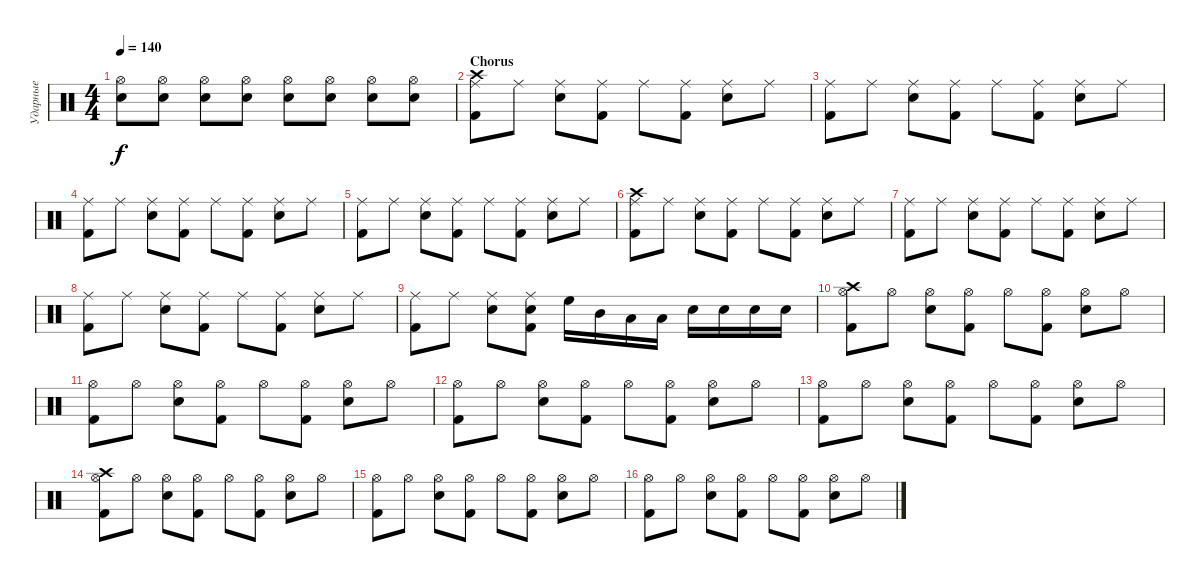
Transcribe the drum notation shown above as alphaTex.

\track ("Ударные" "Ударные") {instrument percussion}
\staff {score}
\articulation defaults
\ts (4 4)
\tempo 140
\clef neutral
\ks c
("Hi-Hat (open)" "Snare (hit) 2").8{dy f} ("Hi-Hat (open)" "Snare (hit) 2").8 ("Hi-Hat (open)" "Snare (hit) 2").8 ("Hi-Hat (open)" "Snare (hit) 2").8 ("Hi-Hat (open)" "Snare (hit) 2").8 ("Hi-Hat (open)" "Snare (hit) 2").8 ("Hi-Hat (open)" "Snare (hit) 2").8 ("Hi-Hat (open)" "Snare (hit) 2").8 |
\section ("" "Chorus")
("Ride (middle)" "Crash high (hit)" "Kick (hit) 2").8 "Ride (middle)".8 ("Ride (middle)" "Snare (hit) 2").8 ("Ride (middle)" "Kick (hit) 2").8 "Ride (middle)".8 ("Ride (middle)" "Kick (hit) 2").8 ("Ride (middle)" "Snare (hit) 2").8 "Ride (middle)".8 |
("Ride (middle)" "Kick (hit) 2").8 "Ride (middle)".8 ("Ride (middle)" "Snare (hit) 2").8 ("Ride (middle)" "Kick (hit) 2").8 "Ride (middle)".8 ("Ride (middle)" "Kick (hit) 2").8 ("Ride (middle)" "Snare (hit) 2").8 "Ride (middle)".8 |
("Ride (middle)" "Kick (hit) 2").8 "Ride (middle)".8 ("Ride (middle)" "Snare (hit) 2").8 ("Ride (middle)" "Kick (hit) 2").8 "Ride (middle)".8 ("Ride (middle)" "Kick (hit) 2").8 ("Ride (middle)" "Snare (hit) 2").8 "Ride (middle)".8 |
("Ride (middle)" "Kick (hit) 2").8 "Ride (middle)".8 ("Ride (middle)" "Snare (hit) 2").8 ("Ride (middle)" "Kick (hit) 2").8 "Ride (middle)".8 ("Ride (middle)" "Kick (hit) 2").8 ("Ride (middle)" "Snare (hit) 2").8 "Ride (middle)".8 |
("Ride (middle)" "Crash high (hit)" "Kick (hit) 2").8 "Ride (middle)".8 ("Ride (middle)" "Snare (hit) 2").8 ("Ride (middle)" "Kick (hit) 2").8 "Ride (middle)".8 ("Ride (middle)" "Kick (hit) 2").8 ("Ride (middle)" "Snare (hit) 2").8 "Ride (middle)".8 |
("Ride (middle)" "Kick (hit) 2").8 "Ride (middle)".8 ("Ride (middle)" "Snare (hit) 2").8 ("Ride (middle)" "Kick (hit) 2").8 "Ride (middle)".8 ("Ride (middle)" "Kick (hit) 2").8 ("Ride (middle)" "Snare (hit) 2").8 "Ride (middle)".8 |
("Ride (middle)" "Kick (hit) 2").8 "Ride (middle)".8 ("Ride (middle)" "Snare (hit) 2").8 ("Ride (middle)" "Kick (hit) 2").8 "Ride (middle)".8 ("Ride (middle)" "Kick (hit) 2").8 ("Ride (middle)" "Snare (hit) 2").8 "Ride (middle)".8 |
("Ride (middle)" "Kick (hit) 2").8 "Ride (middle)".8 ("Ride (middle)" "Snare (hit) 2").8 ("Ride (middle)" "Snare (hit) 2" "Kick (hit) 2").8 "High Floor Tom (hit)".16 "Mid Tom (hit)".16 "Low Tom (hit)".16 "Low Floor Tom (hit)".16 "Snare (hit) 2".16 "Snare (hit) 2".16 "Snare (hit) 2".16 "Snare (hit) 2".16 |
("Hi-Hat (open)" "Crash high (hit)" "Kick (hit) 2").8 "Hi-Hat (open)".8 ("Hi-Hat (open)" "Snare (hit) 2").8 ("Hi-Hat (open)" "Kick (hit) 2").8 "Hi-Hat (open)".8 ("Hi-Hat (open)" "Kick (hit) 2").8 ("Hi-Hat (open)" "Snare (hit) 2").8 "Hi-Hat (open)".8 |
("Hi-Hat (open)" "Kick (hit) 2").8 "Hi-Hat (open)".8 ("Hi-Hat (open)" "Snare (hit) 2").8 ("Hi-Hat (open)" "Kick (hit) 2").8 "Hi-Hat (open)".8 ("Hi-Hat (open)" "Kick (hit) 2").8 ("Hi-Hat (open)" "Snare (hit) 2").8 "Hi-Hat (open)".8 |
("Hi-Hat (open)" "Kick (hit) 2").8 "Hi-Hat (open)".8 ("Hi-Hat (open)" "Snare (hit) 2").8 ("Hi-Hat (open)" "Kick (hit) 2").8 "Hi-Hat (open)".8 ("Hi-Hat (open)" "Kick (hit) 2").8 ("Hi-Hat (open)" "Snare (hit) 2").8 "Hi-Hat (open)".8 |
("Hi-Hat (open)" "Kick (hit) 2").8 "Hi-Hat (open)".8 ("Hi-Hat (open)" "Snare (hit) 2").8 ("Hi-Hat (open)" "Kick (hit) 2").8 "Hi-Hat (open)".8 ("Hi-Hat (open)" "Kick (hit) 2").8 ("Hi-Hat (open)" "Snare (hit) 2").8 "Hi-Hat (open)".8 |
("Hi-Hat (open)" "Crash high (hit)" "Kick (hit) 2").8 "Hi-Hat (open)".8 ("Hi-Hat (open)" "Snare (hit) 2").8 ("Hi-Hat (open)" "Kick (hit) 2").8 "Hi-Hat (open)".8 ("Hi-Hat (open)" "Kick (hit) 2").8 ("Hi-Hat (open)" "Snare (hit) 2").8 "Hi-Hat (open)".8 |
("Hi-Hat (open)" "Kick (hit) 2").8 "Hi-Hat (open)".8 ("Hi-Hat (open)" "Snare (hit) 2").8 ("Hi-Hat (open)" "Kick (hit) 2").8 "Hi-Hat (open)".8 ("Hi-Hat (open)" "Kick (hit) 2").8 ("Hi-Hat (open)" "Snare (hit) 2").8 "Hi-Hat (open)".8 |
("Hi-Hat (open)" "Kick (hit) 2").8 "Hi-Hat (open)".8 ("Hi-Hat (open)" "Snare (hit) 2").8 ("Hi-Hat (open)" "Kick (hit) 2").8 "Hi-Hat (open)".8 ("Hi-Hat (open)" "Kick (hit) 2").8 ("Hi-Hat (open)" "Snare (hit) 2").8 "Hi-Hat (open)".8
